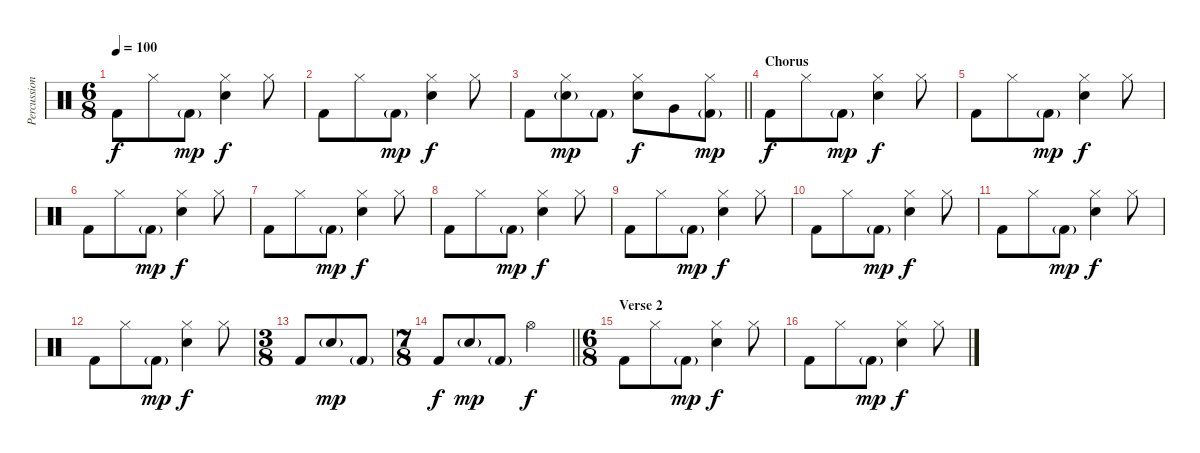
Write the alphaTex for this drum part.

\track ("Percussion" "Percussion") {instrument percussion}
\staff {score}
\articulation defaults
\ts (6 8)
\tempo 100
\clef neutral
\ks c "Kick (hit) 2".8{dy f} "Hi-Hat (closed)".8 "Kick (hit) 2"{g}.8{dy mp}
("Hi-Hat (closed)" "Snare (hit) 2").4{dy f} "Hi-Hat (closed)".8 |
"Kick (hit) 2".8 "Hi-Hat (closed)".8 "Kick (hit) 2"{g}.8{dy mp} ("Hi-Hat (closed)" "Snare (hit) 2").4{dy f} "Hi-Hat (closed)".8 |
\barLineRight lightlight "Kick (hit) 2".8
("Hi-Hat (closed)" "Snare (hit) 2"{g}).8{dy mp} "Kick (hit) 2"{g}.8 ("Hi-Hat (closed)" "Snare (hit) 2").8{dy f} "Very Low Tom (hit)".8 ("Hi-Hat (closed)" "Kick (hit) 2"{g}).8{dy mp} |
\section ("" "Chorus")
"Kick (hit) 2".8{dy f} "Hi-Hat (closed)".8 "Kick (hit) 2"{g}.8{dy mp} ("Hi-Hat (closed)" "Snare (hit) 2").4{dy f} "Hi-Hat (closed)".8 |
"Kick (hit) 2".8 "Hi-Hat (closed)".8 "Kick (hit) 2"{g}.8{dy mp} ("Hi-Hat (closed)" "Snare (hit) 2").4{dy f} "Hi-Hat (closed)".8 |
"Kick (hit) 2".8 "Hi-Hat (closed)".8 "Kick (hit) 2"{g}.8{dy mp} ("Hi-Hat (closed)" "Snare (hit) 2").4{dy f} "Hi-Hat (closed)".8 |
"Kick (hit) 2".8 "Hi-Hat (closed)".8 "Kick (hit) 2"{g}.8{dy mp} ("Hi-Hat (closed)" "Snare (hit) 2").4{dy f} "Hi-Hat (closed)".8 |
"Kick (hit) 2".8 "Hi-Hat (closed)".8 "Kick (hit) 2"{g}.8{dy mp} ("Hi-Hat (closed)" "Snare (hit) 2").4{dy f} "Hi-Hat (closed)".8 |
"Kick (hit) 2".8 "Hi-Hat (closed)".8 "Kick (hit) 2"{g}.8{dy mp} ("Hi-Hat (closed)" "Snare (hit) 2").4{dy f} "Hi-Hat (closed)".8 |
"Kick (hit) 2".8 "Hi-Hat (closed)".8 "Kick (hit) 2"{g}.8{dy mp} ("Hi-Hat (closed)" "Snare (hit) 2").4{dy f} "Hi-Hat (closed)".8 |
"Kick (hit) 2".8 "Hi-Hat (closed)".8 "Kick (hit) 2"{g}.8{dy mp} ("Hi-Hat (closed)" "Snare (hit) 2").4{dy f} "Hi-Hat (closed)".8 |
"Kick (hit) 2".8 "Hi-Hat (closed)".8 "Kick (hit) 2"{g}.8{dy mp} ("Hi-Hat (closed)" "Snare (hit) 2").4{dy f} "Hi-Hat (closed)".8 |
\ts (3 8)
"Kick (hit) 2".8 "Snare (hit) 2"{g}.8{dy mp} "Kick (hit) 2"{g}.8 |
\ts (7 8)
\barLineRight lightlight "Kick (hit) 2".8{dy f} "Snare (hit) 2"{g}.8{dy mp} "Kick (hit) 2"{g}.8 "Hi-Hat (open)".2{dy f}
|
\ts (6 8)
\section ("" "Verse 2")
"Kick (hit) 2".8 "Hi-Hat (closed)".8 "Kick (hit) 2"{g}.8{dy mp} ("Hi-Hat (closed)" "Snare (hit) 2").4{dy f} "Hi-Hat (closed)".8 |
"Kick (hit) 2".8 "Hi-Hat (closed)".8 "Kick (hit) 2"{g}.8{dy mp} ("Hi-Hat (closed)" "Snare (hit) 2").4{dy f} "Hi-Hat (closed)".8
